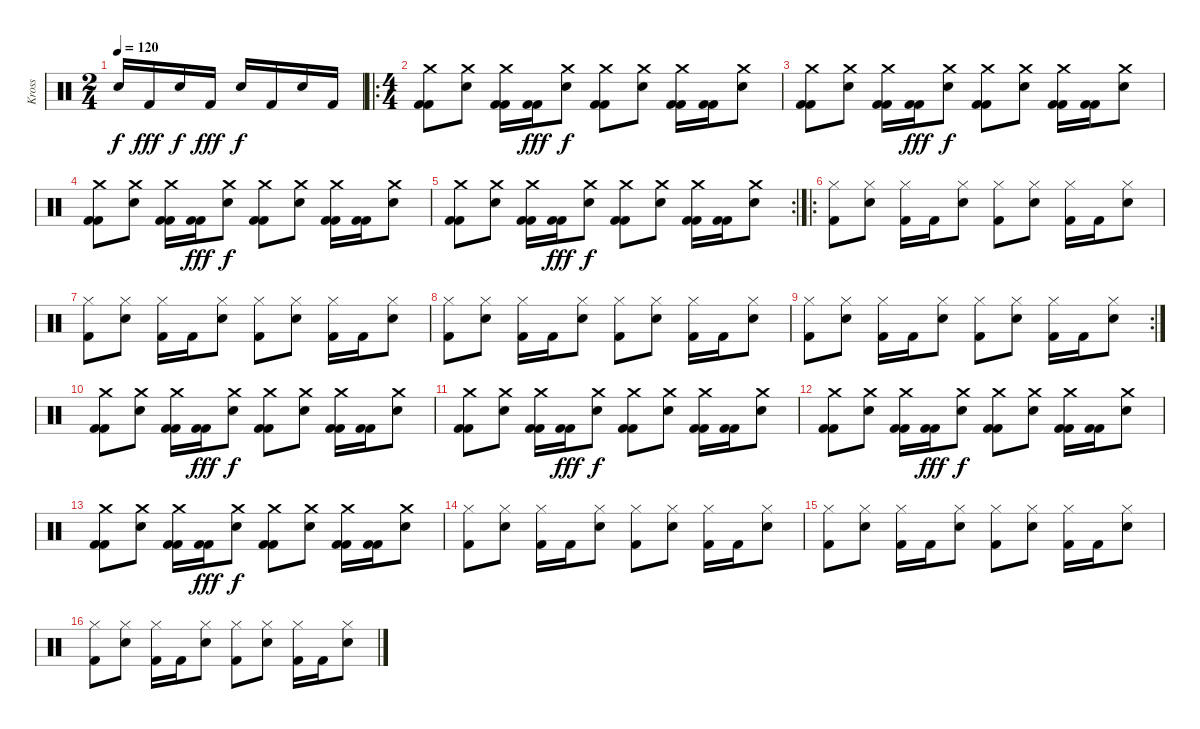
\track ("Kross" "Kross") {instrument percussion}
\staff {score}
\articulation defaults
\ts (2 4)
\tempo 120
\clef neutral
\ks c "Snare (hit) 2".16{dy f} "Kick (hit) 2".16{dy fff} "Snare (hit) 2".16{dy f} "Kick (hit) 2".16{dy fff} "Snare (hit) 2".16{dy f} "Kick (hit) 2".16 "Snare (hit) 2".16 "Kick (hit) 2".16
|
\ro
\ts (4 4)
("Kick (hit) 2" "Kick (hit) 2" "Crash medium (hit)").8 ("Crash medium (hit)" "Snare (hit) 2").8 ("Kick (hit) 2" "Kick (hit) 2" "Crash medium (hit)").16 ("Kick (hit) 2" "Kick (hit) 2").16{dy fff} ("Crash medium (hit)" "Snare (hit) 2").8{dy f} ("Kick (hit) 2" "Kick (hit) 2" "Crash medium (hit)").8 ("Crash medium (hit)" "Snare (hit) 2").8 ("Kick (hit) 2" "Kick (hit) 2" "Crash medium (hit)").16 ("Kick (hit) 2" "Kick (hit) 2").16 ("Crash medium (hit)" "Snare (hit) 2").8 |
("Kick (hit) 2" "Kick (hit) 2" "Crash medium (hit)").8 ("Crash medium (hit)" "Snare (hit) 2").8 ("Kick (hit) 2" "Kick (hit) 2" "Crash medium (hit)").16 ("Kick (hit) 2" "Kick (hit) 2").16{dy fff} ("Crash medium (hit)" "Snare (hit) 2").8{dy f} ("Kick (hit) 2" "Kick (hit) 2" "Crash medium (hit)").8 ("Crash medium (hit)" "Snare (hit) 2").8 ("Kick (hit) 2" "Kick (hit) 2" "Crash medium (hit)").16 ("Kick (hit) 2" "Kick (hit) 2").16 ("Crash medium (hit)" "Snare (hit) 2").8 |
("Kick (hit) 2" "Kick (hit) 2" "Crash medium (hit)").8 ("Crash medium (hit)" "Snare (hit) 2").8 ("Kick (hit) 2" "Kick (hit) 2" "Crash medium (hit)").16 ("Kick (hit) 2" "Kick (hit) 2").16{dy fff} ("Crash medium (hit)" "Snare (hit) 2").8{dy f} ("Kick (hit) 2" "Kick (hit) 2" "Crash medium (hit)").8 ("Crash medium (hit)" "Snare (hit) 2").8 ("Kick (hit) 2" "Kick (hit) 2" "Crash medium (hit)").16 ("Kick (hit) 2" "Kick (hit) 2").16 ("Crash medium (hit)" "Snare (hit) 2").8 |
\rc 2
("Kick (hit) 2" "Kick (hit) 2" "Crash medium (hit)").8 ("Crash medium (hit)" "Snare (hit) 2").8 ("Kick (hit) 2" "Kick (hit) 2" "Crash medium (hit)").16 ("Kick (hit) 2" "Kick (hit) 2").16{dy fff} ("Crash medium (hit)" "Snare (hit) 2").8{dy f} ("Kick (hit) 2" "Kick (hit) 2" "Crash medium (hit)").8 ("Crash medium (hit)" "Snare (hit) 2").8 ("Kick (hit) 2" "Kick (hit) 2" "Crash medium (hit)").16 ("Kick (hit) 2" "Kick (hit) 2").16 ("Crash medium (hit)" "Snare (hit) 2").8 |
\ro
("Kick (hit) 2" "Hi-Hat (closed)").8 ("Hi-Hat (closed)" "Snare (hit) 2").8 ("Kick (hit) 2" "Hi-Hat (closed)").16 "Kick (hit) 2".16 ("Hi-Hat (closed)" "Snare (hit) 2").8 ("Kick (hit) 2" "Hi-Hat (closed)").8 ("Hi-Hat (closed)" "Snare (hit) 2").8 ("Kick (hit) 2" "Hi-Hat (closed)").16 "Kick (hit) 2".16 ("Hi-Hat (closed)" "Snare (hit) 2").8 |
("Kick (hit) 2" "Hi-Hat (closed)").8 ("Hi-Hat (closed)" "Snare (hit) 2").8 ("Kick (hit) 2" "Hi-Hat (closed)").16 "Kick (hit) 2".16 ("Hi-Hat (closed)" "Snare (hit) 2").8 ("Kick (hit) 2" "Hi-Hat (closed)").8 ("Hi-Hat (closed)" "Snare (hit) 2").8 ("Kick (hit) 2" "Hi-Hat (closed)").16 "Kick (hit) 2".16 ("Hi-Hat (closed)" "Snare (hit) 2").8 |
("Kick (hit) 2" "Hi-Hat (closed)").8 ("Hi-Hat (closed)" "Snare (hit) 2").8 ("Kick (hit) 2" "Hi-Hat (closed)").16 "Kick (hit) 2".16 ("Hi-Hat (closed)" "Snare (hit) 2").8 ("Kick (hit) 2" "Hi-Hat (closed)").8 ("Hi-Hat (closed)" "Snare (hit) 2").8 ("Kick (hit) 2" "Hi-Hat (closed)").16 "Kick (hit) 2".16 ("Hi-Hat (closed)" "Snare (hit) 2").8 |
\rc 2
("Kick (hit) 2" "Hi-Hat (closed)").8 ("Hi-Hat (closed)" "Snare (hit) 2").8 ("Kick (hit) 2" "Hi-Hat (closed)").16 "Kick (hit) 2".16 ("Hi-Hat (closed)" "Snare (hit) 2").8 ("Kick (hit) 2" "Hi-Hat (closed)").8 ("Hi-Hat (closed)" "Snare (hit) 2").8 ("Kick (hit) 2" "Hi-Hat (closed)").16 "Kick (hit) 2".16 ("Hi-Hat (closed)" "Snare (hit) 2").8 |
("Kick (hit) 2" "Kick (hit) 2" "Crash medium (hit)").8 ("Crash medium (hit)" "Snare (hit) 2").8 ("Kick (hit) 2" "Kick (hit) 2" "Crash medium (hit)").16 ("Kick (hit) 2" "Kick (hit) 2").16{dy fff} ("Crash medium (hit)" "Snare (hit) 2").8{dy f} ("Kick (hit) 2" "Kick (hit) 2" "Crash medium (hit)").8 ("Crash medium (hit)" "Snare (hit) 2").8 ("Kick (hit) 2" "Kick (hit) 2" "Crash medium (hit)").16 ("Kick (hit) 2" "Kick (hit) 2").16 ("Crash medium (hit)" "Snare (hit) 2").8 |
("Kick (hit) 2" "Kick (hit) 2" "Crash medium (hit)").8 ("Crash medium (hit)" "Snare (hit) 2").8 ("Kick (hit) 2" "Kick (hit) 2" "Crash medium (hit)").16 ("Kick (hit) 2" "Kick (hit) 2").16{dy fff} ("Crash medium (hit)" "Snare (hit) 2").8{dy f} ("Kick (hit) 2" "Kick (hit) 2" "Crash medium (hit)").8 ("Crash medium (hit)" "Snare (hit) 2").8 ("Kick (hit) 2" "Kick (hit) 2" "Crash medium (hit)").16 ("Kick (hit) 2" "Kick (hit) 2").16 ("Crash medium (hit)" "Snare (hit) 2").8 |
("Kick (hit) 2" "Kick (hit) 2" "Crash medium (hit)").8 ("Crash medium (hit)" "Snare (hit) 2").8 ("Kick (hit) 2" "Kick (hit) 2" "Crash medium (hit)").16 ("Kick (hit) 2" "Kick (hit) 2").16{dy fff} ("Crash medium (hit)" "Snare (hit) 2").8{dy f} ("Kick (hit) 2" "Kick (hit) 2" "Crash medium (hit)").8 ("Crash medium (hit)" "Snare (hit) 2").8 ("Kick (hit) 2" "Kick (hit) 2" "Crash medium (hit)").16 ("Kick (hit) 2" "Kick (hit) 2").16 ("Crash medium (hit)" "Snare (hit) 2").8 |
("Kick (hit) 2" "Kick (hit) 2" "Crash medium (hit)").8 ("Crash medium (hit)" "Snare (hit) 2").8 ("Kick (hit) 2" "Kick (hit) 2" "Crash medium (hit)").16 ("Kick (hit) 2" "Kick (hit) 2").16{dy fff} ("Crash medium (hit)" "Snare (hit) 2").8{dy f} ("Kick (hit) 2" "Kick (hit) 2" "Crash medium (hit)").8 ("Crash medium (hit)" "Snare (hit) 2").8 ("Kick (hit) 2" "Kick (hit) 2" "Crash medium (hit)").16 ("Kick (hit) 2" "Kick (hit) 2").16 ("Crash medium (hit)" "Snare (hit) 2").8 |
("Kick (hit) 2" "Hi-Hat (closed)").8 ("Hi-Hat (closed)" "Snare (hit) 2").8 ("Kick (hit) 2" "Hi-Hat (closed)").16 "Kick (hit) 2".16 ("Hi-Hat (closed)" "Snare (hit) 2").8 ("Kick (hit) 2" "Hi-Hat (closed)").8 ("Hi-Hat (closed)" "Snare (hit) 2").8 ("Kick (hit) 2" "Hi-Hat (closed)").16 "Kick (hit) 2".16 ("Hi-Hat (closed)" "Snare (hit) 2").8 |
("Kick (hit) 2" "Hi-Hat (closed)").8 ("Hi-Hat (closed)" "Snare (hit) 2").8 ("Kick (hit) 2" "Hi-Hat (closed)").16 "Kick (hit) 2".16 ("Hi-Hat (closed)" "Snare (hit) 2").8 ("Kick (hit) 2" "Hi-Hat (closed)").8 ("Hi-Hat (closed)" "Snare (hit) 2").8 ("Kick (hit) 2" "Hi-Hat (closed)").16 "Kick (hit) 2".16 ("Hi-Hat (closed)" "Snare (hit) 2").8 |
("Kick (hit) 2" "Hi-Hat (closed)").8 ("Hi-Hat (closed)" "Snare (hit) 2").8 ("Kick (hit) 2" "Hi-Hat (closed)").16 "Kick (hit) 2".16 ("Hi-Hat (closed)" "Snare (hit) 2").8 ("Kick (hit) 2" "Hi-Hat (closed)").8 ("Hi-Hat (closed)" "Snare (hit) 2").8 ("Kick (hit) 2" "Hi-Hat (closed)").16 "Kick (hit) 2".16 ("Hi-Hat (closed)" "Snare (hit) 2").8
